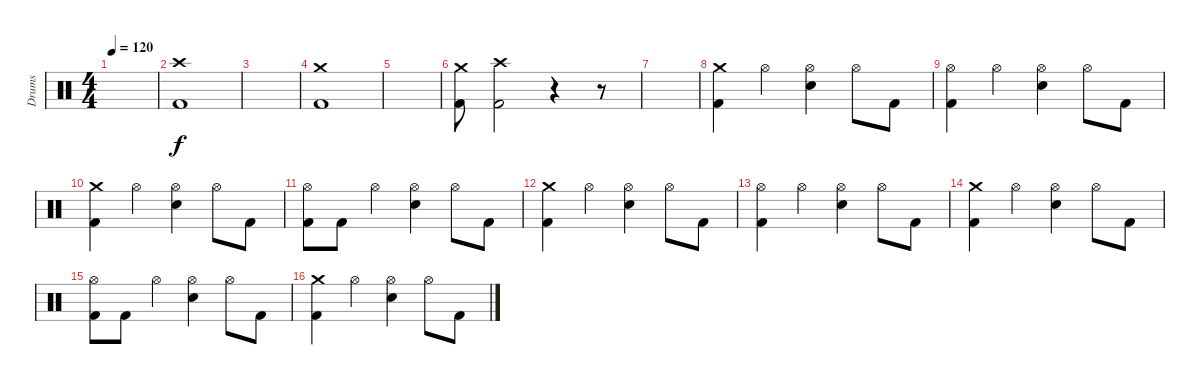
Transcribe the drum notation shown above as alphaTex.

\track ("Drums" "Drums") {instrument percussion}
\staff {score}
\articulation defaults
\ts (4 4)
\tempo 120
\clef neutral
\ks c
|
("Kick (hit) 2" "Crash high (hit)").1 |
|
("Kick (hit) 2" "Crash medium (hit)").1 |
|
("Kick (hit) 2" "Crash medium (hit)").8 ("Kick (hit) 2" "Crash high (hit)").2 r.4 r.8 |
|
("Crash medium (hit)" "Kick (hit) 2").4 "Hi-Hat (open)".4 ("Hi-Hat (open)" "Electric Snare (hit)").4 "Hi-Hat (open)".8 "Kick (hit) 2".8 |
("Hi-Hat (open)" "Kick (hit) 2").4 "Hi-Hat (open)".4 ("Hi-Hat (open)" "Electric Snare (hit)").4 "Hi-Hat (open)".8 "Kick (hit) 2".8 |
("Crash medium (hit)" "Kick (hit) 2").4 "Hi-Hat (open)".4 ("Hi-Hat (open)" "Electric Snare (hit)").4 "Hi-Hat (open)".8 "Kick (hit) 2".8 |
("Hi-Hat (open)" "Kick (hit) 2").8 "Kick (hit) 2".8 "Hi-Hat (open)".4 ("Hi-Hat (open)" "Electric Snare (hit)").4 "Hi-Hat (open)".8 "Kick (hit) 2".8 |
("Crash medium (hit)" "Kick (hit) 2").4 "Hi-Hat (open)".4 ("Hi-Hat (open)" "Electric Snare (hit)").4 "Hi-Hat (open)".8 "Kick (hit) 2".8 |
("Hi-Hat (open)" "Kick (hit) 2").4 "Hi-Hat (open)".4 ("Hi-Hat (open)" "Electric Snare (hit)").4 "Hi-Hat (open)".8 "Kick (hit) 2".8 |
("Crash medium (hit)" "Kick (hit) 2").4 "Hi-Hat (open)".4 ("Hi-Hat (open)" "Electric Snare (hit)").4 "Hi-Hat (open)".8 "Kick (hit) 2".8 |
("Hi-Hat (open)" "Kick (hit) 2").8 "Kick (hit) 2".8 "Hi-Hat (open)".4 ("Hi-Hat (open)" "Electric Snare (hit)").4 "Hi-Hat (open)".8 "Kick (hit) 2".8 |
("Crash medium (hit)" "Kick (hit) 2").4 "Hi-Hat (open)".4 ("Hi-Hat (open)" "Electric Snare (hit)").4 "Hi-Hat (open)".8 "Kick (hit) 2".8
